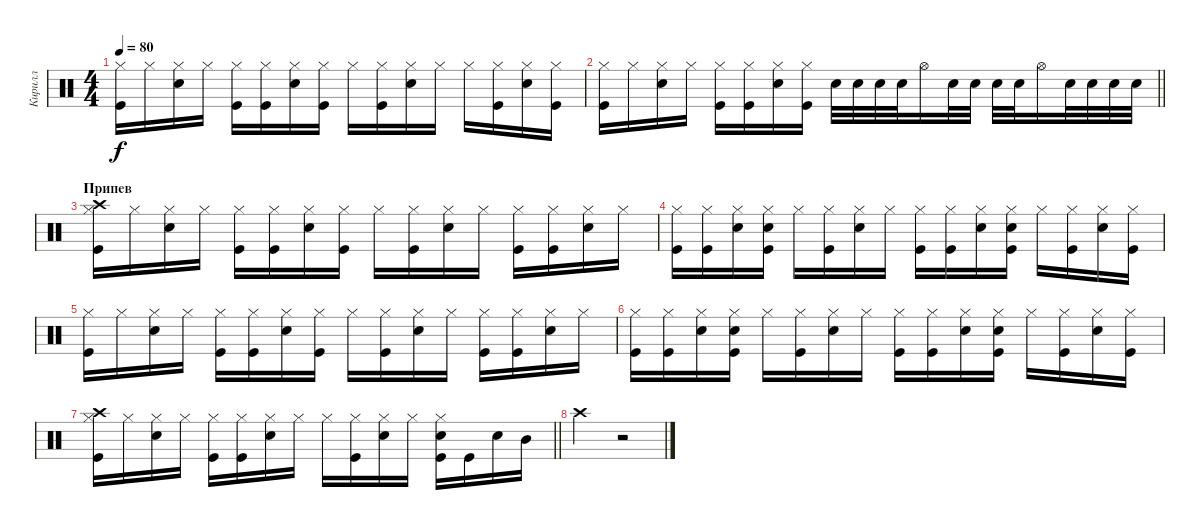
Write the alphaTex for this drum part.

\track ("Кирилл" "Кирилл") {instrument percussion}
\staff {score}
\articulation defaults
\ts (4 4)
\tempo 80
\clef neutral
\ks c
("Hi-Hat (closed)" "Kick (hit)").16{dy f} "Hi-Hat (closed)".16 ("Hi-Hat (closed)" "Electric Snare (hit)").16 "Hi-Hat (closed)".16 ("Hi-Hat (closed)" "Kick (hit)").16 ("Hi-Hat (closed)" "Kick (hit)").16 ("Hi-Hat (closed)" "Electric Snare (hit)").16 ("Hi-Hat (closed)" "Kick (hit)").16 "Hi-Hat (closed)".16 ("Hi-Hat (closed)" "Kick (hit)").16 ("Hi-Hat (closed)" "Electric Snare (hit)").16 "Hi-Hat (closed)".16 "Hi-Hat (closed)".16 ("Hi-Hat (closed)" "Kick (hit)").16 ("Hi-Hat (closed)" "Electric Snare (hit)").16 ("Hi-Hat (closed)" "Kick (hit)").16 |
\barLineRight lightlight
("Hi-Hat (closed)" "Kick (hit)").16 "Hi-Hat (closed)".16 ("Hi-Hat (closed)" "Electric Snare (hit)").16 "Hi-Hat (closed)".16 ("Hi-Hat (closed)" "Kick (hit)").16 ("Hi-Hat (closed)" "Kick (hit)").16 ("Hi-Hat (closed)" "Electric Snare (hit)").16 ("Hi-Hat (closed)" "Kick (hit)").16 "Electric Snare (hit)".32 "Electric Snare (hit)".32 "Electric Snare (hit)".32 "Electric Snare (hit)".32 "Hi-Hat (open)".16 "Electric Snare (hit)".32 "Electric Snare (hit)".32 "Electric Snare (hit)".32 "Electric Snare (hit)".32 "Hi-Hat (open)".16 "Electric Snare (hit)".32 "Electric Snare (hit)".32 "Electric Snare (hit)".32 "Electric Snare (hit)".32 |
\section ("" "Припев")
("Hi-Hat (closed)" "Crash high (hit)" "Kick (hit)").16 "Hi-Hat (closed)".16 ("Hi-Hat (closed)" "Electric Snare (hit)").16 "Hi-Hat (closed)".16 ("Hi-Hat (closed)" "Kick (hit)").16 ("Hi-Hat (closed)" "Kick (hit)").16 ("Hi-Hat (closed)" "Electric Snare (hit)").16 ("Hi-Hat (closed)" "Kick (hit)").16 "Hi-Hat (closed)".16 ("Hi-Hat (closed)" "Kick (hit)").16 ("Hi-Hat (closed)" "Electric Snare (hit)").16 "Hi-Hat (closed)".16 ("Hi-Hat (closed)" "Kick (hit)").16 ("Hi-Hat (closed)" "Kick (hit)").16 ("Hi-Hat (closed)" "Electric Snare (hit)").16 "Hi-Hat (closed)".16 |
("Hi-Hat (closed)" "Kick (hit)").16 ("Hi-Hat (closed)" "Kick (hit)").16 ("Hi-Hat (closed)" "Electric Snare (hit)").16 ("Hi-Hat (closed)" "Electric Snare (hit)" "Kick (hit)").16 "Hi-Hat (closed)".16 ("Hi-Hat (closed)" "Kick (hit)").16 ("Hi-Hat (closed)" "Electric Snare (hit)").16 "Hi-Hat (closed)".16 ("Hi-Hat (closed)" "Kick (hit)").16 ("Hi-Hat (closed)" "Kick (hit)").16 ("Hi-Hat (closed)" "Electric Snare (hit)").16 ("Hi-Hat (closed)" "Electric Snare (hit)" "Kick (hit)").16 "Hi-Hat (closed)".16 ("Hi-Hat (closed)" "Kick (hit)").16 ("Hi-Hat (closed)" "Electric Snare (hit)").16 ("Hi-Hat (closed)" "Kick (hit)").16 |
("Hi-Hat (closed)" "Kick (hit)").16 "Hi-Hat (closed)".16 ("Hi-Hat (closed)" "Electric Snare (hit)").16 "Hi-Hat (closed)".16 ("Hi-Hat (closed)" "Kick (hit)").16 ("Hi-Hat (closed)" "Kick (hit)").16 ("Hi-Hat (closed)" "Electric Snare (hit)").16 ("Hi-Hat (closed)" "Kick (hit)").16 "Hi-Hat (closed)".16 ("Hi-Hat (closed)" "Kick (hit)").16 ("Hi-Hat (closed)" "Electric Snare (hit)").16 "Hi-Hat (closed)".16 ("Hi-Hat (closed)" "Kick (hit)").16 ("Hi-Hat (closed)" "Kick (hit)").16 ("Hi-Hat (closed)" "Electric Snare (hit)").16 "Hi-Hat (closed)".16 |
("Hi-Hat (closed)" "Kick (hit)").16 ("Hi-Hat (closed)" "Kick (hit)").16 ("Hi-Hat (closed)" "Electric Snare (hit)").16 ("Hi-Hat (closed)" "Electric Snare (hit)" "Kick (hit)").16 "Hi-Hat (closed)".16 ("Hi-Hat (closed)" "Kick (hit)").16 ("Hi-Hat (closed)" "Electric Snare (hit)").16 "Hi-Hat (closed)".16 ("Hi-Hat (closed)" "Kick (hit)").16 ("Hi-Hat (closed)" "Kick (hit)").16 ("Hi-Hat (closed)" "Electric Snare (hit)").16 ("Hi-Hat (closed)" "Electric Snare (hit)" "Kick (hit)").16 "Hi-Hat (closed)".16 ("Hi-Hat (closed)" "Kick (hit)").16 ("Hi-Hat (closed)" "Electric Snare (hit)").16 ("Hi-Hat (closed)" "Kick (hit)").16 |
\barLineRight lightlight
("Hi-Hat (closed)" "Crash high (hit)" "Kick (hit)").16 "Hi-Hat (closed)".16 ("Hi-Hat (closed)" "Electric Snare (hit)").16 "Hi-Hat (closed)".16 ("Hi-Hat (closed)" "Kick (hit)").16 ("Hi-Hat (closed)" "Kick (hit)").16 ("Hi-Hat (closed)" "Electric Snare (hit)").16 "Hi-Hat (closed)".16 "Hi-Hat (closed)".16 ("Hi-Hat (closed)" "Kick (hit)").16 ("Hi-Hat (closed)" "Electric Snare (hit)").16 "Hi-Hat (closed)".16 ("Hi-Hat (closed)" "Electric Snare (hit)" "Kick (hit)").16 "Kick (hit)".16 "Electric Snare (hit)".16 "Mid Tom (hit)".16 |
"Crash high (hit)".2 r.2
